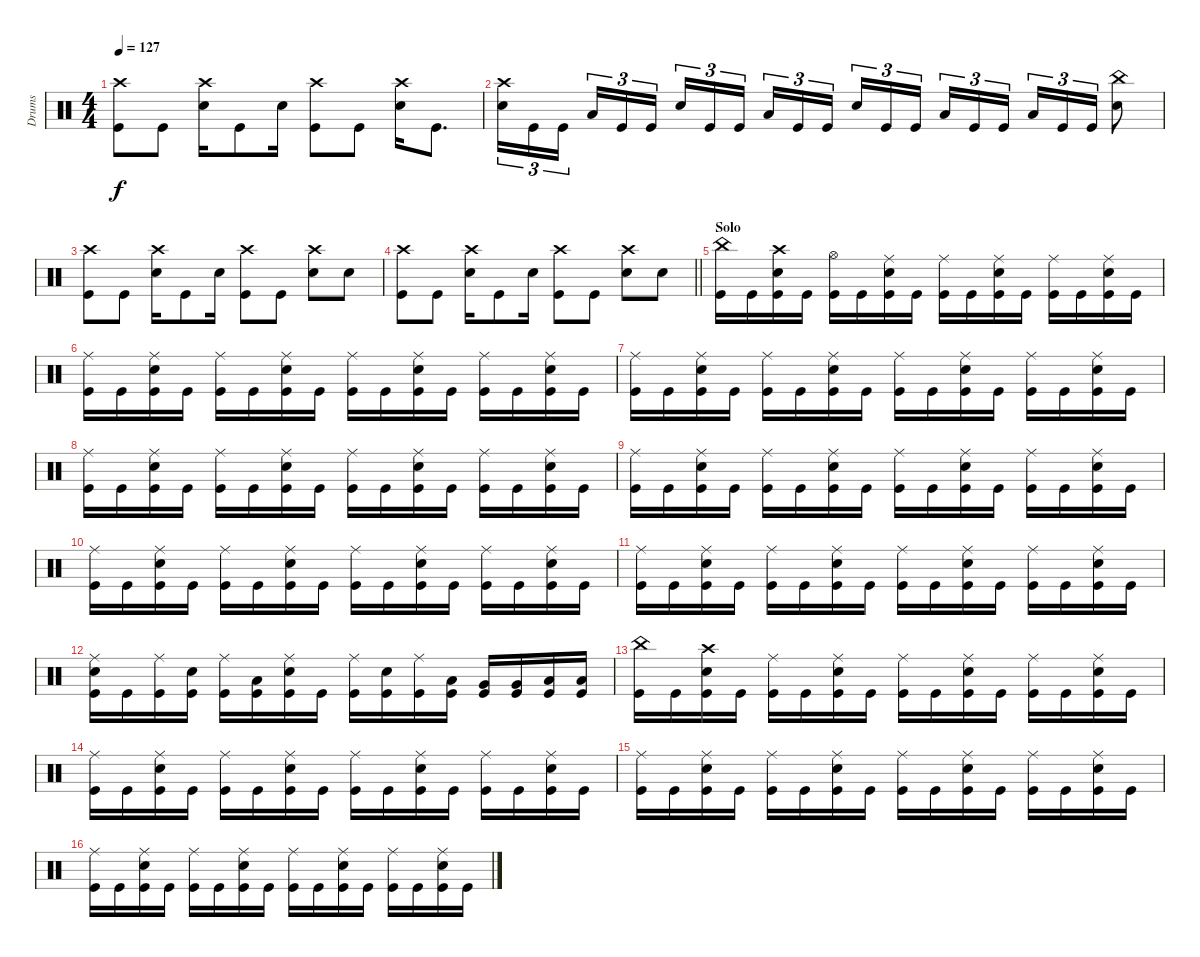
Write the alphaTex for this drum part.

\track ("Drums" "Drums") {instrument percussion}
\staff {score}
\articulation defaults
\ts (4 4)
\tempo 127
\clef neutral
\ks c
("Kick (hit)" "Crash high (hit)").8{dy f} "Kick (hit)".8 ("Snare (hit) 2" "Crash high (hit)").16 "Kick (hit)".8 "Snare (hit) 2".16 ("Kick (hit)" "Crash high (hit)").8 "Kick (hit)".8 ("Snare (hit) 2" "Crash high (hit)").16 "Kick (hit)".8{d} |
("Snare (hit) 2" "Crash high (hit)").16{tu (3 2)} "Kick (hit)".16{tu (3 2)} "Kick (hit)".16{tu (3 2) beam splitsecondary} "Low Tom (hit)".16{tu (3 2)} "Kick (hit)".16{tu (3 2)} "Kick (hit)".16{tu (3 2)} "Snare (hit) 2".16{tu (3 2)} "Kick (hit)".16{tu (3 2)} "Kick (hit)".16{tu (3 2) beam splitsecondary} "Low Tom (hit)".16{tu (3 2)} "Kick (hit)".16{tu (3 2)} "Kick (hit)".16{tu (3 2)} "Snare (hit) 2".16{tu (3 2)} "Kick (hit)".16{tu (3 2)} "Kick (hit)".16{tu (3 2) beam splitsecondary} "Low Tom (hit)".16{tu (3 2)} "Kick (hit)".16{tu (3 2)} "Kick (hit)".16{tu (3 2)} "Low Floor Tom (hit)".16{tu (3 2)} "Kick (hit)".16{tu (3 2)} "Kick (hit)".16{tu (3 2)} ("Snare (hit) 2" "China (hit)").8 |
("Kick (hit)" "Crash high (hit)").8 "Kick (hit)".8 ("Snare (hit) 2" "Crash high (hit)").16 "Kick (hit)".8 "Snare (hit) 2".16 ("Kick (hit)" "Crash high (hit)").8 "Kick (hit)".8 ("Snare (hit) 2" "Crash high (hit)").8 "Snare (hit) 2".8 |
\barLineRight lightlight
("Kick (hit)" "Crash high (hit)").8 "Kick (hit)".8 ("Snare (hit) 2" "Crash high (hit)").16 "Kick (hit)".8 "Snare (hit) 2".16 ("Kick (hit)" "Crash high (hit)").8 "Kick (hit)".8 ("Snare (hit) 2" "Crash high (hit)").8 "Snare (hit) 2".8 |
\section ("" "Solo")
("Kick (hit)" "China (hit)").16 "Kick (hit)".16 ("Kick (hit)" "Snare (hit) 2" "Crash high (hit)").16 "Kick (hit)".16 ("Kick (hit)" "Hi-Hat (open)").16 "Kick (hit)".16 ("Snare (hit) 2" "Ride (middle)" "Kick (hit)").16 "Kick (hit)".16 ("Kick (hit)" "Ride (middle)").16 "Kick (hit)".16 ("Snare (hit) 2" "Ride (middle)" "Kick (hit)").16 "Kick (hit)".16 ("Kick (hit)" "Ride (middle)").16 "Kick (hit)".16 ("Snare (hit) 2" "Ride (middle)" "Kick (hit)").16 "Kick (hit)".16 |
("Kick (hit)" "Ride (middle)").16 "Kick (hit)".16 ("Snare (hit) 2" "Ride (middle)" "Kick (hit)").16 "Kick (hit)".16 ("Kick (hit)" "Ride (middle)").16 "Kick (hit)".16 ("Snare (hit) 2" "Ride (middle)" "Kick (hit)").16 "Kick (hit)".16 ("Kick (hit)" "Ride (middle)").16 "Kick (hit)".16 ("Snare (hit) 2" "Ride (middle)" "Kick (hit)").16 "Kick (hit)".16 ("Kick (hit)" "Ride (middle)").16 "Kick (hit)".16 ("Snare (hit) 2" "Ride (middle)" "Kick (hit)").16 "Kick (hit)".16 |
("Kick (hit)" "Ride (middle)").16 "Kick (hit)".16 ("Snare (hit) 2" "Ride (middle)" "Kick (hit)").16 "Kick (hit)".16 ("Kick (hit)" "Ride (middle)").16 "Kick (hit)".16 ("Snare (hit) 2" "Ride (middle)" "Kick (hit)").16 "Kick (hit)".16 ("Kick (hit)" "Ride (middle)").16 "Kick (hit)".16 ("Snare (hit) 2" "Ride (middle)" "Kick (hit)").16 "Kick (hit)".16 ("Kick (hit)" "Ride (middle)").16 "Kick (hit)".16 ("Snare (hit) 2" "Ride (middle)" "Kick (hit)").16 "Kick (hit)".16 |
("Kick (hit)" "Ride (middle)").16 "Kick (hit)".16 ("Snare (hit) 2" "Ride (middle)" "Kick (hit)").16 "Kick (hit)".16 ("Kick (hit)" "Ride (middle)").16 "Kick (hit)".16 ("Snare (hit) 2" "Ride (middle)" "Kick (hit)").16 "Kick (hit)".16 ("Kick (hit)" "Ride (middle)").16 "Kick (hit)".16 ("Snare (hit) 2" "Ride (middle)" "Kick (hit)").16 "Kick (hit)".16 ("Kick (hit)" "Ride (middle)").16 "Kick (hit)".16 ("Snare (hit) 2" "Ride (middle)" "Kick (hit)").16 "Kick (hit)".16 |
("Kick (hit)" "Ride (middle)").16 "Kick (hit)".16 ("Snare (hit) 2" "Ride (middle)" "Kick (hit)").16 "Kick (hit)".16 ("Kick (hit)" "Ride (middle)").16 "Kick (hit)".16 ("Snare (hit) 2" "Ride (middle)" "Kick (hit)").16 "Kick (hit)".16 ("Kick (hit)" "Ride (middle)").16 "Kick (hit)".16 ("Snare (hit) 2" "Ride (middle)" "Kick (hit)").16 "Kick (hit)".16 ("Kick (hit)" "Ride (middle)").16 "Kick (hit)".16 ("Snare (hit) 2" "Ride (middle)" "Kick (hit)").16 "Kick (hit)".16 |
("Kick (hit)" "Ride (middle)").16 "Kick (hit)".16 ("Snare (hit) 2" "Ride (middle)" "Kick (hit)").16 "Kick (hit)".16 ("Kick (hit)" "Ride (middle)").16 "Kick (hit)".16 ("Snare (hit) 2" "Ride (middle)" "Kick (hit)").16 "Kick (hit)".16 ("Kick (hit)" "Ride (middle)").16 "Kick (hit)".16 ("Snare (hit) 2" "Ride (middle)" "Kick (hit)").16 "Kick (hit)".16 ("Kick (hit)" "Ride (middle)").16 "Kick (hit)".16 ("Snare (hit) 2" "Ride (middle)" "Kick (hit)").16 "Kick (hit)".16 |
("Kick (hit)" "Ride (middle)").16 "Kick (hit)".16 ("Snare (hit) 2" "Ride (middle)" "Kick (hit)").16 "Kick (hit)".16 ("Kick (hit)" "Ride (middle)").16 "Kick (hit)".16 ("Snare (hit) 2" "Ride (middle)" "Kick (hit)").16 "Kick (hit)".16 ("Kick (hit)" "Ride (middle)").16 "Kick (hit)".16 ("Snare (hit) 2" "Ride (middle)" "Kick (hit)").16 "Kick (hit)".16 ("Kick (hit)" "Ride (middle)").16 "Kick (hit)".16 ("Snare (hit) 2" "Ride (middle)" "Kick (hit)").16 "Kick (hit)".16 |
("Kick (hit)" "Ride (middle)" "Snare (hit) 2").16 "Kick (hit)".16 ("Ride (middle)" "Kick (hit)").16 ("Kick (hit)" "Snare (hit) 2").16 ("Kick (hit)" "Ride (middle)").16 ("Kick (hit)" "Low Tom (hit)").16 ("Snare (hit) 2" "Ride (middle)" "Kick (hit)").16 "Kick (hit)".16 ("Kick (hit)" "Ride (middle)").16 ("Kick (hit)" "Snare (hit) 2").16 ("Ride (middle)" "Kick (hit)").16 ("Kick (hit)" "Low Tom (hit)").16 ("Kick (hit)" "Very Low Tom (hit)").16 ("Kick (hit)" "Very Low Tom (hit)").16 ("Low Floor Tom (hit)" "Kick (hit)").16 ("Kick (hit)" "Low Floor Tom (hit)").16 |
("Kick (hit)" "China (hit)").16 "Kick (hit)".16 ("Kick (hit)" "Snare (hit) 2" "Crash high (hit)").16 "Kick (hit)".16 ("Kick (hit)" "Ride (middle)").16 "Kick (hit)".16 ("Snare (hit) 2" "Ride (middle)" "Kick (hit)").16 "Kick (hit)".16 ("Kick (hit)" "Ride (middle)").16 "Kick (hit)".16 ("Snare (hit) 2" "Ride (middle)" "Kick (hit)").16 "Kick (hit)".16 ("Kick (hit)" "Ride (middle)").16 "Kick (hit)".16 ("Snare (hit) 2" "Ride (middle)" "Kick (hit)").16 "Kick (hit)".16 |
("Kick (hit)" "Ride (middle)").16 "Kick (hit)".16 ("Snare (hit) 2" "Ride (middle)" "Kick (hit)").16 "Kick (hit)".16 ("Kick (hit)" "Ride (middle)").16 "Kick (hit)".16 ("Snare (hit) 2" "Ride (middle)" "Kick (hit)").16 "Kick (hit)".16 ("Kick (hit)" "Ride (middle)").16 "Kick (hit)".16 ("Snare (hit) 2" "Ride (middle)" "Kick (hit)").16 "Kick (hit)".16 ("Kick (hit)" "Ride (middle)").16 "Kick (hit)".16 ("Snare (hit) 2" "Ride (middle)" "Kick (hit)").16 "Kick (hit)".16 |
("Kick (hit)" "Ride (middle)").16 "Kick (hit)".16 ("Snare (hit) 2" "Ride (middle)" "Kick (hit)").16 "Kick (hit)".16 ("Kick (hit)" "Ride (middle)").16 "Kick (hit)".16 ("Snare (hit) 2" "Ride (middle)" "Kick (hit)").16 "Kick (hit)".16 ("Kick (hit)" "Ride (middle)").16 "Kick (hit)".16 ("Snare (hit) 2" "Ride (middle)" "Kick (hit)").16 "Kick (hit)".16 ("Kick (hit)" "Ride (middle)").16 "Kick (hit)".16 ("Snare (hit) 2" "Ride (middle)" "Kick (hit)").16 "Kick (hit)".16 |
("Kick (hit)" "Ride (middle)").16 "Kick (hit)".16 ("Snare (hit) 2" "Ride (middle)" "Kick (hit)").16 "Kick (hit)".16 ("Kick (hit)" "Ride (middle)").16 "Kick (hit)".16 ("Snare (hit) 2" "Ride (middle)" "Kick (hit)").16 "Kick (hit)".16 ("Kick (hit)" "Ride (middle)").16 "Kick (hit)".16 ("Snare (hit) 2" "Ride (middle)" "Kick (hit)").16 "Kick (hit)".16 ("Kick (hit)" "Ride (middle)").16 "Kick (hit)".16 ("Snare (hit) 2" "Ride (middle)" "Kick (hit)").16 "Kick (hit)".16
